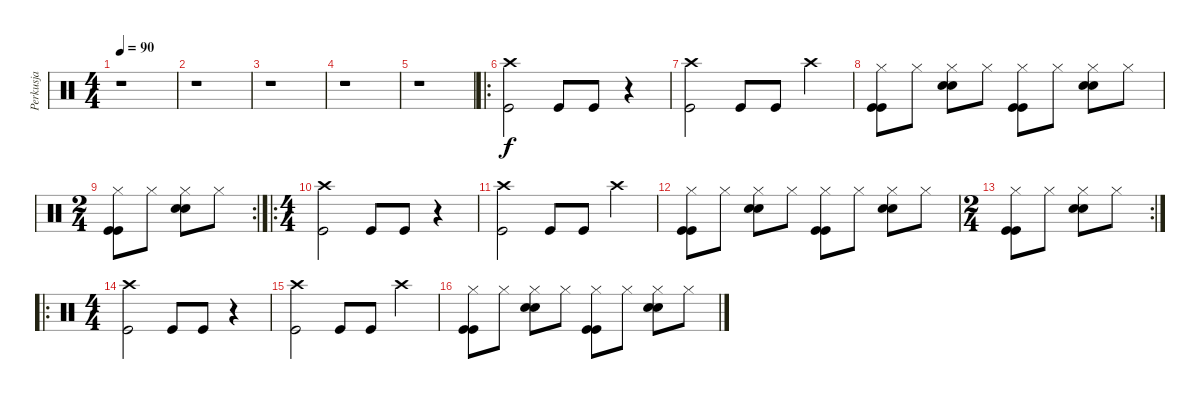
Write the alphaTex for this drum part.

\track ("Perkusja" "Perkusja") {instrument percussion}
\staff {score}
\articulation defaults
\ts (4 4)
\tempo 90
\clef neutral
\ks c
r.1{dy f} |
r.1 |
r.1 |
r.1 |
r.1 |
\ro
("Kick (hit)" "Crash high (hit)").2 "Kick (hit)".8 "Kick (hit)".8 r.4 |
("Kick (hit)" "Crash high (hit)").2 "Kick (hit)".8 "Kick (hit)".8 "Crash high (hit)".4 |
("Hi-Hat (closed)" "Kick (hit)" "Kick (hit)").8 "Hi-Hat (closed)".8 ("Hi-Hat (closed)" "Snare (hit) 2" "Snare (hit) 2").8 "Hi-Hat (closed)".8 ("Hi-Hat (closed)" "Kick (hit)" "Kick (hit)").8 "Hi-Hat (closed)".8 ("Hi-Hat (closed)" "Snare (hit) 2" "Snare (hit) 2").8 "Hi-Hat (closed)".8 |
\rc 2
\ts (2 4)
("Hi-Hat (closed)" "Kick (hit)" "Kick (hit)").8 "Hi-Hat (closed)".8 ("Hi-Hat (closed)" "Snare (hit) 2" "Snare (hit) 2").8 "Hi-Hat (closed)".8 |
\ro
\ts (4 4)
("Kick (hit)" "Crash high (hit)").2 "Kick (hit)".8 "Kick (hit)".8 r.4 |
("Kick (hit)" "Crash high (hit)").2 "Kick (hit)".8 "Kick (hit)".8 "Crash high (hit)".4 |
("Hi-Hat (closed)" "Kick (hit)" "Kick (hit)").8 "Hi-Hat (closed)".8 ("Hi-Hat (closed)" "Snare (hit) 2" "Snare (hit) 2").8 "Hi-Hat (closed)".8 ("Hi-Hat (closed)" "Kick (hit)" "Kick (hit)").8 "Hi-Hat (closed)".8 ("Hi-Hat (closed)" "Snare (hit) 2" "Snare (hit) 2").8 "Hi-Hat (closed)".8 |
\rc 2
\ts (2 4)
("Hi-Hat (closed)" "Kick (hit)" "Kick (hit)").8 "Hi-Hat (closed)".8 ("Hi-Hat (closed)" "Snare (hit) 2" "Snare (hit) 2").8 "Hi-Hat (closed)".8 |
\ro
\ts (4 4)
("Kick (hit)" "Crash high (hit)").2 "Kick (hit)".8 "Kick (hit)".8 r.4 |
("Kick (hit)" "Crash high (hit)").2 "Kick (hit)".8 "Kick (hit)".8 "Crash high (hit)".4 |
("Hi-Hat (closed)" "Kick (hit)" "Kick (hit)").8 "Hi-Hat (closed)".8 ("Hi-Hat (closed)" "Snare (hit) 2" "Snare (hit) 2").8 "Hi-Hat (closed)".8 ("Hi-Hat (closed)" "Kick (hit)" "Kick (hit)").8 "Hi-Hat (closed)".8 ("Hi-Hat (closed)" "Snare (hit) 2" "Snare (hit) 2").8 "Hi-Hat (closed)".8
